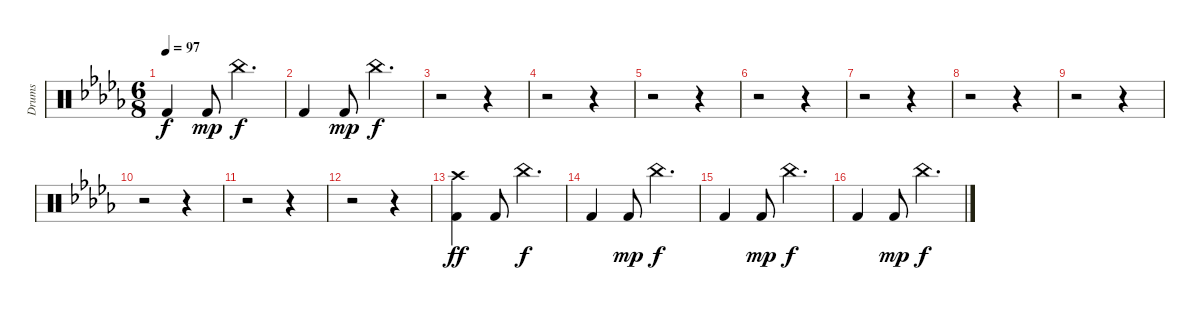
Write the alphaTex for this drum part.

\track ("Drums" "Drums") {instrument percussion}
\staff {score}
\articulation defaults
\ts (6 8)
\tempo 97
\clef neutral
\ks db "Kick (hit) 2".4{dy f} "Kick (hit) 2".8{dy mp} "China (hit)".4{d dy f}
|
"Kick (hit) 2".4 "Kick (hit) 2".8{dy mp} "China (hit)".4{d dy f} |
r.2 r.4 |
r.2 r.4 |
r.2 r.4 |
r.2 r.4 |
r.2 r.4 |
r.2 r.4 |
r.2 r.4 |
r.2 r.4 |
r.2 r.4 |
r.2 r.4 |
("Crash high (hit)" "Kick (hit) 2").4{dy ff} "Kick (hit) 2".8 "China (hit)".4{d dy f} |
"Kick (hit) 2".4 "Kick (hit) 2".8{dy mp} "China (hit)".4{d dy f} |
"Kick (hit) 2".4 "Kick (hit) 2".8{dy mp} "China (hit)".4{d dy f} |
"Kick (hit) 2".4 "Kick (hit) 2".8{dy mp} "China (hit)".4{d dy f}
